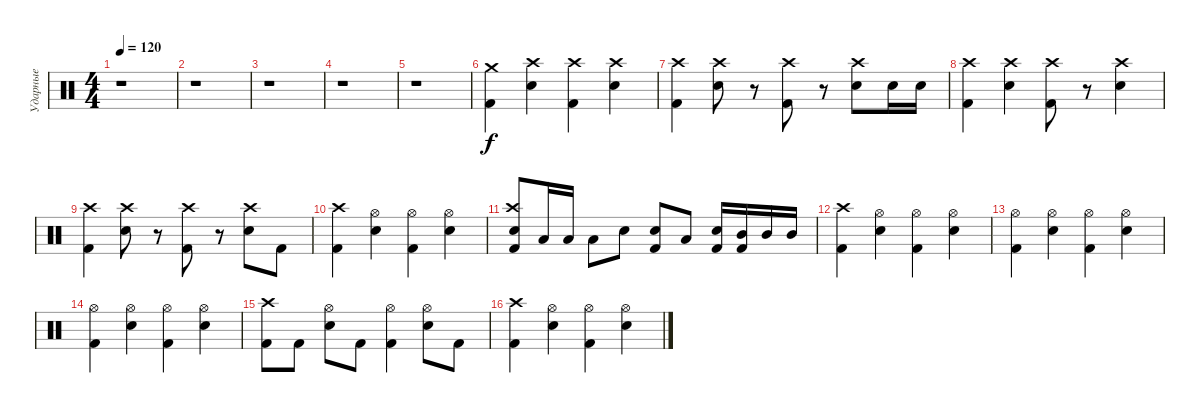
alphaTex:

\track ("Ударные" "Ударные") {instrument percussion}
\staff {score}
\articulation defaults
\ts (4 4)
\tempo 120
\clef neutral
\ks c
r.1{dy f} |
r.1 |
r.1 |
r.1 |
r.1 |
("Crash medium (hit)" "Kick (hit) 2").4 ("Crash high (hit)" "Electric Snare (hit)").4 ("Crash high (hit)" "Kick (hit) 2").4 ("Crash high (hit)" "Electric Snare (hit)").4 |
("Crash high (hit)" "Kick (hit) 2").4 ("Crash high (hit)" "Electric Snare (hit)").8 r.8 ("Crash high (hit)" "Kick (hit) 2").8 r.8 ("Crash high (hit)" "Electric Snare (hit)").8 "Electric Snare (hit)".16 "Electric Snare (hit)".16 |
("Crash high (hit)" "Kick (hit) 2").4 ("Crash high (hit)" "Electric Snare (hit)").4 ("Crash high (hit)" "Kick (hit) 2").8 r.8 ("Crash high (hit)" "Electric Snare (hit)").4 |
("Crash high (hit)" "Kick (hit) 2").4 ("Crash high (hit)" "Electric Snare (hit)").8 r.8 ("Crash high (hit)" "Kick (hit) 2").8 r.8 ("Crash high (hit)" "Electric Snare (hit)").8 "Kick (hit) 2".8 |
("Crash high (hit)" "Kick (hit) 2").4 ("Hi-Hat (open)" "Electric Snare (hit)").4 ("Hi-Hat (open)" "Kick (hit) 2").4 ("Hi-Hat (open)" "Electric Snare (hit)").4 |
("Crash high (hit)" "Electric Snare (hit)" "Kick (hit) 2").8 "Low Tom (hit)".16 "Low Tom (hit)".16 "Low Tom (hit)".8 "Electric Snare (hit)".8 ("Electric Snare (hit)" "Kick (hit) 2").8 "Low Tom (hit)".8 ("Electric Snare (hit)" "Kick (hit) 2").16 ("Mid Tom (hit)" "Kick (hit) 2").16 "Mid Tom (hit)".16 "Mid Tom (hit)".16 |
("Crash high (hit)" "Kick (hit) 2").4 ("Hi-Hat (open)" "Electric Snare (hit)").4 ("Hi-Hat (open)" "Kick (hit) 2").4 ("Hi-Hat (open)" "Electric Snare (hit)").4 |
("Hi-Hat (open)" "Kick (hit) 2").4 ("Hi-Hat (open)" "Electric Snare (hit)").4 ("Hi-Hat (open)" "Kick (hit) 2").4 ("Hi-Hat (open)" "Electric Snare (hit)").4 |
("Hi-Hat (open)" "Kick (hit) 2").4 ("Hi-Hat (open)" "Electric Snare (hit)").4 ("Hi-Hat (open)" "Kick (hit) 2").4 ("Hi-Hat (open)" "Electric Snare (hit)").4 |
("Crash high (hit)" "Kick (hit) 2").8 "Kick (hit) 2".8 ("Hi-Hat (open)" "Electric Snare (hit)").8 "Kick (hit) 2".8 ("Hi-Hat (open)" "Kick (hit) 2").4 ("Hi-Hat (open)" "Electric Snare (hit)").8 "Kick (hit) 2".8 |
("Crash high (hit)" "Kick (hit) 2").4 ("Hi-Hat (open)" "Electric Snare (hit)").4 ("Hi-Hat (open)" "Kick (hit) 2").4 ("Hi-Hat (open)" "Electric Snare (hit)").4
